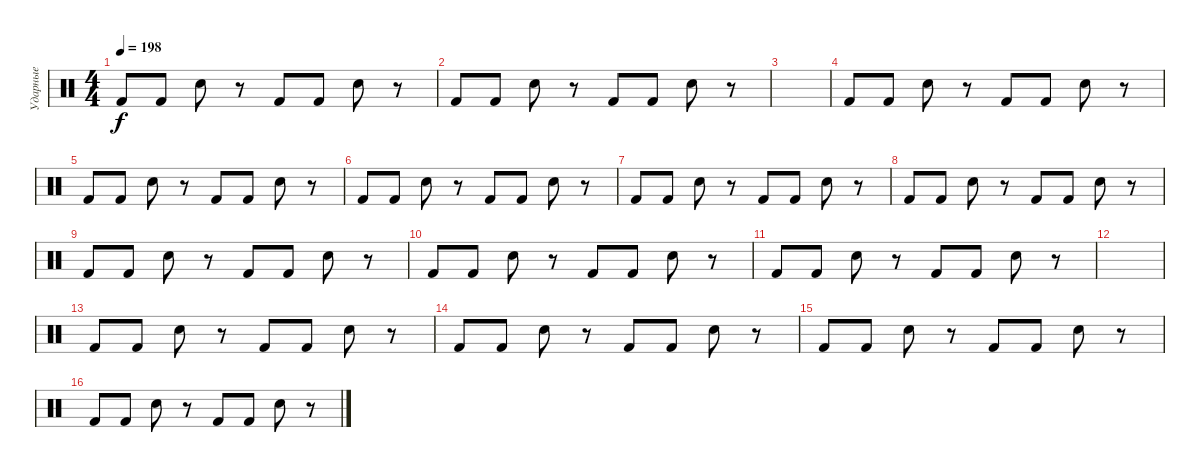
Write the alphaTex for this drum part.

\track ("Ударные" "Ударные") {instrument percussion}
\staff {score}
\articulation defaults
\ts (4 4)
\tempo 198
\clef neutral
\ks c "Kick (hit) 2".8{dy f} "Kick (hit) 2".8 "Snare (hit) 2".8
r.8 "Kick (hit) 2".8 "Kick (hit) 2".8 "Snare (hit) 2".8 r.8 |
"Kick (hit) 2".8 "Kick (hit) 2".8 "Snare (hit) 2".8 r.8 "Kick (hit) 2".8 "Kick (hit) 2".8 "Snare (hit) 2".8 r.8 |
|
"Kick (hit) 2".8 "Kick (hit) 2".8 "Snare (hit) 2".8 r.8 "Kick (hit) 2".8 "Kick (hit) 2".8 "Snare (hit) 2".8 r.8 |
"Kick (hit) 2".8 "Kick (hit) 2".8 "Snare (hit) 2".8 r.8 "Kick (hit) 2".8 "Kick (hit) 2".8 "Snare (hit) 2".8 r.8 |
"Kick (hit) 2".8 "Kick (hit) 2".8 "Snare (hit) 2".8 r.8 "Kick (hit) 2".8 "Kick (hit) 2".8 "Snare (hit) 2".8 r.8 |
"Kick (hit) 2".8 "Kick (hit) 2".8 "Snare (hit) 2".8 r.8 "Kick (hit) 2".8 "Kick (hit) 2".8 "Snare (hit) 2".8 r.8 |
"Kick (hit) 2".8 "Kick (hit) 2".8 "Snare (hit) 2".8 r.8 "Kick (hit) 2".8 "Kick (hit) 2".8 "Snare (hit) 2".8 r.8 |
"Kick (hit) 2".8 "Kick (hit) 2".8 "Snare (hit) 2".8 r.8 "Kick (hit) 2".8 "Kick (hit) 2".8 "Snare (hit) 2".8 r.8 |
"Kick (hit) 2".8 "Kick (hit) 2".8 "Snare (hit) 2".8 r.8 "Kick (hit) 2".8 "Kick (hit) 2".8 "Snare (hit) 2".8 r.8 |
"Kick (hit) 2".8 "Kick (hit) 2".8 "Snare (hit) 2".8 r.8 "Kick (hit) 2".8 "Kick (hit) 2".8 "Snare (hit) 2".8 r.8 |
|
"Kick (hit) 2".8 "Kick (hit) 2".8 "Snare (hit) 2".8 r.8 "Kick (hit) 2".8 "Kick (hit) 2".8 "Snare (hit) 2".8 r.8 |
"Kick (hit) 2".8 "Kick (hit) 2".8 "Snare (hit) 2".8 r.8 "Kick (hit) 2".8 "Kick (hit) 2".8 "Snare (hit) 2".8 r.8 |
"Kick (hit) 2".8 "Kick (hit) 2".8 "Snare (hit) 2".8 r.8 "Kick (hit) 2".8 "Kick (hit) 2".8 "Snare (hit) 2".8 r.8 |
"Kick (hit) 2".8 "Kick (hit) 2".8 "Snare (hit) 2".8 r.8 "Kick (hit) 2".8 "Kick (hit) 2".8 "Snare (hit) 2".8 r.8
